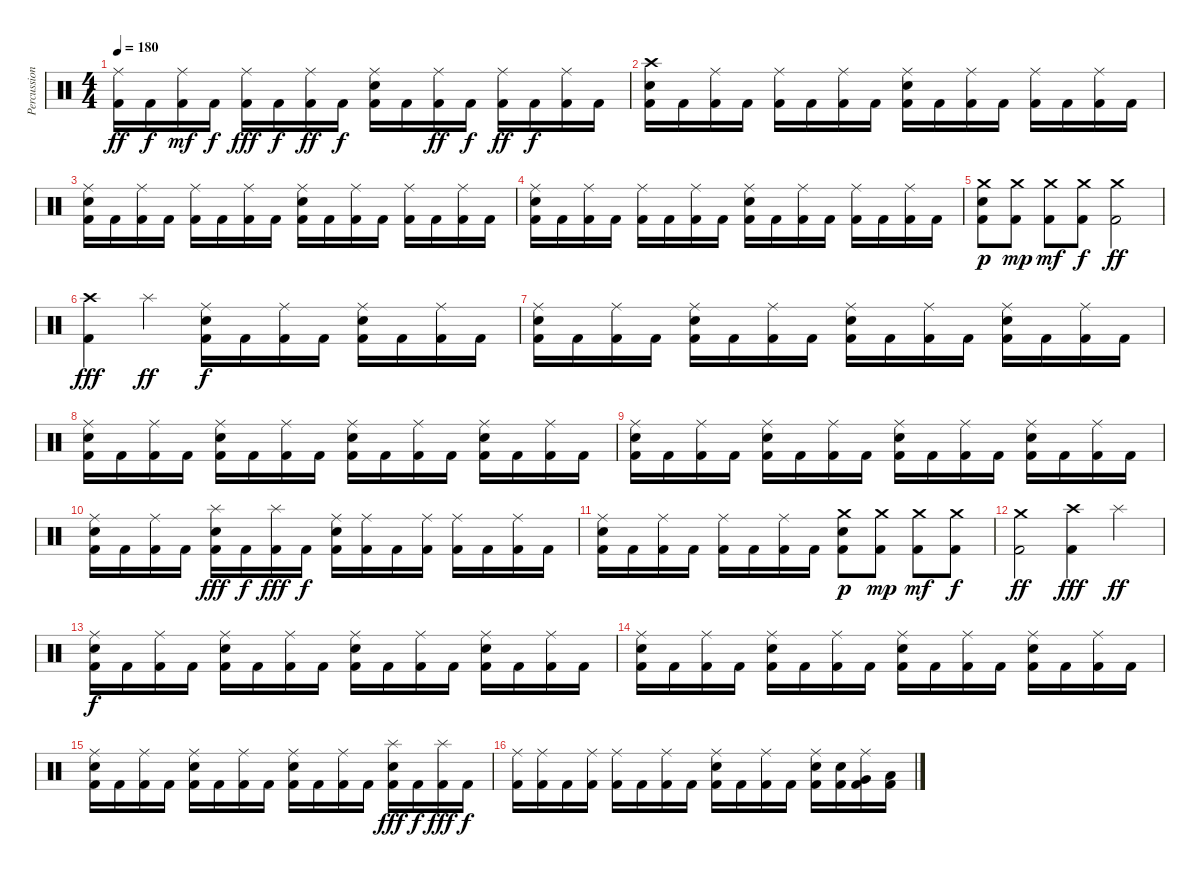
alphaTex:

\track ("Percussion" "Percussion") {instrument percussion}
\staff {score}
\articulation defaults
\ts (4 4)
\tempo 180
\clef neutral
\ks c
("Ride (middle)" "Kick (hit) 2").16{dy ff} "Kick (hit) 2".16{dy f} ("Ride (middle)" "Kick (hit) 2").16{dy mf} "Kick (hit) 2".16{dy f} ("Ride (middle)" "Kick (hit) 2").16{dy fff} "Kick (hit) 2".16{dy f} ("Ride (middle)" "Kick (hit) 2").16{dy ff} "Kick (hit) 2".16{dy f} ("Ride (middle)" "Electric Snare (hit)" "Kick (hit) 2").16 "Kick (hit) 2".16 ("Ride (middle)" "Kick (hit) 2").16{dy ff} "Kick (hit) 2".16{dy f} ("Ride (middle)" "Kick (hit) 2").16{dy ff} "Kick (hit) 2".16{dy f} ("Ride (middle)" "Kick (hit) 2").16 "Kick (hit) 2".16 |
("Crash high (hit)" "Electric Snare (hit)" "Kick (hit) 2").16 "Kick (hit) 2".16 ("Ride (middle)" "Kick (hit) 2").16 "Kick (hit) 2".16 ("Ride (middle)" "Kick (hit) 2").16 "Kick (hit) 2".16 ("Ride (middle)" "Kick (hit) 2").16 "Kick (hit) 2".16 ("Ride (middle)" "Electric Snare (hit)" "Kick (hit) 2").16 "Kick (hit) 2".16 ("Ride (middle)" "Kick (hit) 2").16 "Kick (hit) 2".16 ("Ride (middle)" "Kick (hit) 2").16 "Kick (hit) 2".16 ("Ride (middle)" "Kick (hit) 2").16 "Kick (hit) 2".16 |
("Ride (middle)" "Electric Snare (hit)" "Kick (hit) 2").16 "Kick (hit) 2".16 ("Ride (middle)" "Kick (hit) 2").16 "Kick (hit) 2".16 ("Ride (middle)" "Kick (hit) 2").16 "Kick (hit) 2".16 ("Ride (middle)" "Kick (hit) 2").16 "Kick (hit) 2".16 ("Ride (middle)" "Electric Snare (hit)" "Kick (hit) 2").16 "Kick (hit) 2".16 ("Ride (middle)" "Kick (hit) 2").16 "Kick (hit) 2".16 ("Ride (middle)" "Kick (hit) 2").16 "Kick (hit) 2".16 ("Ride (middle)" "Kick (hit) 2").16 "Kick (hit) 2".16 |
("Ride (middle)" "Electric Snare (hit)" "Kick (hit) 2").16 "Kick (hit) 2".16 ("Ride (middle)" "Kick (hit) 2").16 "Kick (hit) 2".16 ("Ride (middle)" "Kick (hit) 2").16 "Kick (hit) 2".16 ("Ride (middle)" "Kick (hit) 2").16 "Kick (hit) 2".16 ("Ride (middle)" "Electric Snare (hit)" "Kick (hit) 2").16 "Kick (hit) 2".16 ("Ride (middle)" "Kick (hit) 2").16 "Kick (hit) 2".16 ("Ride (middle)" "Kick (hit) 2").16 "Kick (hit) 2".16 ("Ride (middle)" "Kick (hit) 2").16 "Kick (hit) 2".16 |
("Crash medium (hit)" "Electric Snare (hit)" "Kick (hit) 2").8{dy p} ("Crash medium (hit)" "Kick (hit) 2").8{dy mp} ("Crash medium (hit)" "Kick (hit) 2").8{dy mf} ("Crash medium (hit)" "Kick (hit) 2").8{dy f} ("Crash medium (hit)" "Kick (hit) 2").2{dy ff} |
("Crash high (hit)" "Kick (hit) 2").4{dy fff} "Splash (hit)".4{dy ff} ("Ride (middle)" "Electric Snare (hit)" "Kick (hit) 2").16{dy f} "Kick (hit) 2".16 ("Ride (middle)" "Kick (hit) 2").16 "Kick (hit) 2".16 ("Ride (middle)" "Electric Snare (hit)" "Kick (hit) 2").16 "Kick (hit) 2".16 ("Ride (middle)" "Kick (hit) 2").16 "Kick (hit) 2".16 |
("Ride (middle)" "Electric Snare (hit)" "Kick (hit) 2").16 "Kick (hit) 2".16 ("Ride (middle)" "Kick (hit) 2").16 "Kick (hit) 2".16 ("Ride (middle)" "Electric Snare (hit)" "Kick (hit) 2").16 "Kick (hit) 2".16 ("Ride (middle)" "Kick (hit) 2").16 "Kick (hit) 2".16 ("Ride (middle)" "Electric Snare (hit)" "Kick (hit) 2").16 "Kick (hit) 2".16 ("Ride (middle)" "Kick (hit) 2").16 "Kick (hit) 2".16 ("Ride (middle)" "Electric Snare (hit)" "Kick (hit) 2").16 "Kick (hit) 2".16 ("Ride (middle)" "Kick (hit) 2").16 "Kick (hit) 2".16 |
("Ride (middle)" "Electric Snare (hit)" "Kick (hit) 2").16 "Kick (hit) 2".16 ("Ride (middle)" "Kick (hit) 2").16 "Kick (hit) 2".16 ("Ride (middle)" "Electric Snare (hit)" "Kick (hit) 2").16 "Kick (hit) 2".16 ("Ride (middle)" "Kick (hit) 2").16 "Kick (hit) 2".16 ("Ride (middle)" "Electric Snare (hit)" "Kick (hit) 2").16 "Kick (hit) 2".16 ("Ride (middle)" "Kick (hit) 2").16 "Kick (hit) 2".16 ("Ride (middle)" "Electric Snare (hit)" "Kick (hit) 2").16 "Kick (hit) 2".16 ("Ride (middle)" "Kick (hit) 2").16 "Kick (hit) 2".16 |
("Ride (middle)" "Electric Snare (hit)" "Kick (hit) 2").16 "Kick (hit) 2".16 ("Ride (middle)" "Kick (hit) 2").16 "Kick (hit) 2".16 ("Ride (middle)" "Electric Snare (hit)" "Kick (hit) 2").16 "Kick (hit) 2".16 ("Ride (middle)" "Kick (hit) 2").16 "Kick (hit) 2".16 ("Ride (middle)" "Electric Snare (hit)" "Kick (hit) 2").16 "Kick (hit) 2".16 ("Ride (middle)" "Kick (hit) 2").16 "Kick (hit) 2".16 ("Ride (middle)" "Electric Snare (hit)" "Kick (hit) 2").16 "Kick (hit) 2".16 ("Ride (middle)" "Kick (hit) 2").16 "Kick (hit) 2".16 |
("Ride (middle)" "Electric Snare (hit)" "Kick (hit) 2").16 "Kick (hit) 2".16 ("Ride (middle)" "Kick (hit) 2").16 "Kick (hit) 2".16 ("Splash (hit)" "Electric Snare (hit)" "Kick (hit) 2").16{dy fff} "Kick (hit) 2".16{dy f} ("Splash (hit)" "Kick (hit) 2").16{dy fff} "Kick (hit) 2".16{dy f} ("Ride (middle)" "Electric Snare (hit)" "Kick (hit) 2").16 ("Ride (middle)" "Kick (hit) 2").16 "Kick (hit) 2".16 ("Ride (middle)" "Kick (hit) 2").16 ("Ride (middle)" "Kick (hit) 2").16 "Kick (hit) 2".16 ("Ride (middle)" "Kick (hit) 2").16 "Kick (hit) 2".16 |
("Ride (middle)" "Electric Snare (hit)" "Kick (hit) 2").16 "Kick (hit) 2".16 ("Ride (middle)" "Kick (hit) 2").16 "Kick (hit) 2".16 ("Ride (middle)" "Kick (hit) 2").16 "Kick (hit) 2".16 ("Ride (middle)" "Kick (hit) 2").16 "Kick (hit) 2".16 ("Crash medium (hit)" "Electric Snare (hit)" "Kick (hit) 2").8{dy p} ("Crash medium (hit)" "Kick (hit) 2").8{dy mp} ("Crash medium (hit)" "Kick (hit) 2").8{dy mf} ("Crash medium (hit)" "Kick (hit) 2").8{dy f} |
("Crash medium (hit)" "Kick (hit) 2").2{dy ff} ("Crash high (hit)" "Kick (hit) 2").4{dy fff} "Splash (hit)".4{dy ff} |
("Ride (middle)" "Electric Snare (hit)" "Kick (hit) 2").16{dy f} "Kick (hit) 2".16 ("Ride (middle)" "Kick (hit) 2").16 "Kick (hit) 2".16 ("Ride (middle)" "Electric Snare (hit)" "Kick (hit) 2").16 "Kick (hit) 2".16 ("Ride (middle)" "Kick (hit) 2").16 "Kick (hit) 2".16 ("Ride (middle)" "Electric Snare (hit)" "Kick (hit) 2").16 "Kick (hit) 2".16 ("Ride (middle)" "Kick (hit) 2").16 "Kick (hit) 2".16 ("Ride (middle)" "Electric Snare (hit)" "Kick (hit) 2").16 "Kick (hit) 2".16 ("Ride (middle)" "Kick (hit) 2").16 "Kick (hit) 2".16 |
("Ride (middle)" "Electric Snare (hit)" "Kick (hit) 2").16 "Kick (hit) 2".16 ("Ride (middle)" "Kick (hit) 2").16 "Kick (hit) 2".16 ("Ride (middle)" "Electric Snare (hit)" "Kick (hit) 2").16 "Kick (hit) 2".16 ("Ride (middle)" "Kick (hit) 2").16 "Kick (hit) 2".16 ("Ride (middle)" "Electric Snare (hit)" "Kick (hit) 2").16 "Kick (hit) 2".16 ("Ride (middle)" "Kick (hit) 2").16 "Kick (hit) 2".16 ("Ride (middle)" "Electric Snare (hit)" "Kick (hit) 2").16 "Kick (hit) 2".16 ("Ride (middle)" "Kick (hit) 2").16 "Kick (hit) 2".16 |
("Ride (middle)" "Electric Snare (hit)" "Kick (hit) 2").16 "Kick (hit) 2".16 ("Ride (middle)" "Kick (hit) 2").16 "Kick (hit) 2".16 ("Ride (middle)" "Electric Snare (hit)" "Kick (hit) 2").16 "Kick (hit) 2".16 ("Ride (middle)" "Kick (hit) 2").16 "Kick (hit) 2".16 ("Ride (middle)" "Electric Snare (hit)" "Kick (hit) 2").16 "Kick (hit) 2".16 ("Ride (middle)" "Kick (hit) 2").16 "Kick (hit) 2".16 ("Splash (hit)" "Electric Snare (hit)" "Kick (hit) 2").16{dy fff} "Kick (hit) 2".16{dy f} ("Splash (hit)" "Kick (hit) 2").16{dy fff} "Kick (hit) 2".16{dy f} |
("Ride (middle)" "Kick (hit) 2").16 ("Ride (middle)" "Kick (hit) 2").16 "Kick (hit) 2".16 ("Ride (middle)" "Kick (hit) 2").16 ("Ride (middle)" "Kick (hit) 2").16 "Kick (hit) 2".16 ("Ride (middle)" "Kick (hit) 2").16 "Kick (hit) 2".16 ("Ride (middle)" "Electric Snare (hit)" "Kick (hit) 2").16 "Kick (hit) 2".16 ("Ride (middle)" "Kick (hit) 2").16 "Kick (hit) 2".16 ("Ride (middle)" "Electric Snare (hit)" "Kick (hit) 2").16 ("Electric Snare (hit)" "Kick (hit) 2").16 ("Ride (middle)" "Very Low Tom (hit)" "Kick (hit) 2").16 ("Low Floor Tom (hit)" "Kick (hit) 2").16
